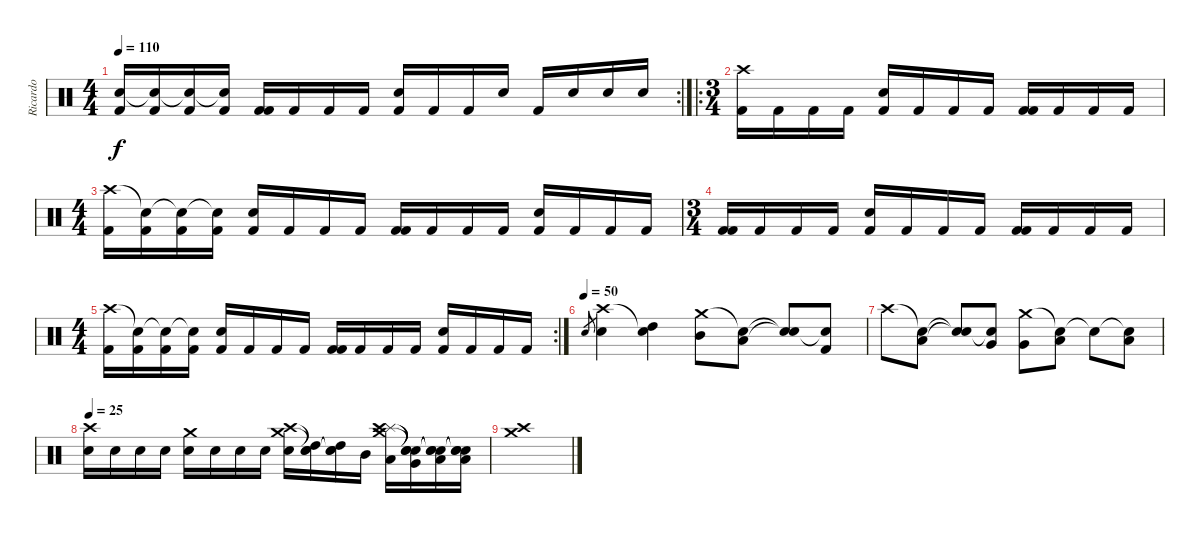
\track ("Ricardo" "Ricardo") {instrument percussion}
\staff {score}
\articulation defaults
\rc 2
\ts (4 4)
\tempo 110
\clef neutral
\ks c
("Snare (hit) 2" "Kick (hit) 2").16{dy f} ("Snare (hit)"{t} "Kick (hit) 2").16 ("Snare (hit)"{t} "Kick (hit) 2").16 ("Snare (hit)"{t} "Kick (hit) 2").16 ("Kick (hit) 2" "Kick (hit) 2").16 "Kick (hit) 2".16 "Kick (hit) 2".16 "Kick (hit) 2".16 ("Snare (hit) 2" "Kick (hit) 2").16 "Kick (hit) 2".16 "Kick (hit) 2".16 "Snare (hit) 2".16 "Kick (hit) 2".16 "Snare (hit) 2".16 "Snare (hit) 2".16 "Snare (hit) 2".16 |
\ro
\ts (3 4)
("Crash high (hit)" "Kick (hit) 2").16 "Kick (hit) 2".16 "Kick (hit) 2".16 "Kick (hit) 2".16 ("Snare (hit) 2" "Kick (hit) 2").16 "Kick (hit) 2".16 "Kick (hit) 2".16 "Kick (hit) 2".16 ("Kick (hit) 2" "Kick (hit) 2").16 "Kick (hit) 2".16 "Kick (hit) 2".16 "Kick (hit) 2".16 |
\ts (4 4)
("Crash high (hit)" "Kick (hit) 2").16 ("Snare (hit)"{t} "Kick (hit) 2").16 ("Snare (hit)"{t} "Kick (hit) 2").16 ("Snare (hit)"{t} "Kick (hit) 2").16 ("Snare (hit) 2" "Kick (hit) 2").16 "Kick (hit) 2".16 "Kick (hit) 2".16 "Kick (hit) 2".16 ("Kick (hit) 2" "Kick (hit) 2").16 "Kick (hit) 2".16 "Kick (hit) 2".16 "Kick (hit) 2".16 ("Snare (hit) 2" "Kick (hit) 2").16 "Kick (hit) 2".16 "Kick (hit) 2".16 "Kick (hit) 2".16 |
\ts (3 4)
("Kick (hit) 2" "Kick (hit) 2").16 "Kick (hit) 2".16 "Kick (hit) 2".16 "Kick (hit) 2".16 ("Snare (hit) 2" "Kick (hit) 2").16 "Kick (hit) 2".16 "Kick (hit) 2".16 "Kick (hit) 2".16 ("Kick (hit) 2" "Kick (hit) 2").16 "Kick (hit) 2".16 "Kick (hit) 2".16 "Kick (hit) 2".16 |
\rc 2
\ts (4 4)
("Crash high (hit)" "Kick (hit) 2").16 ("Snare (hit)"{t} "Kick (hit) 2").16 ("Snare (hit)"{t} "Kick (hit) 2").16 ("Snare (hit)"{t} "Kick (hit) 2").16 ("Snare (hit) 2" "Kick (hit) 2").16 "Kick (hit) 2".16 "Kick (hit) 2".16 "Kick (hit) 2".16 ("Kick (hit) 2" "Kick (hit) 2").16 "Kick (hit) 2".16 "Kick (hit) 2".16 "Kick (hit) 2".16 ("Snare (hit) 2" "Kick (hit) 2").16 "Kick (hit) 2".16 "Kick (hit) 2".16 "Kick (hit) 2".16 |
\tempo (50)
"Snare (hit) 2".8{gr} ("Crash high (hit)" "Snare (hit) 2").4 ("Snare (hit)"{t} "High Tom (hit)").4 ("Crash medium (hit)" "Mid Tom (hit)").8 ("Snare (hit)"{t} "Low Tom (hit)").8 ("Snare (hit)"{t} "Snare (hit)"{t}).8 ("Snare (hit)"{t} "Kick (hit) 2").8 |
"Crash high (hit)".8 ("Snare (hit)"{t} "Low Tom (hit)").8 ("Snare (hit)"{t} "Snare (hit)"{t}).8 ("Snare (hit)"{t} "Very Low Tom (hit)").8 ("Crash medium (hit)" "Very Low Tom (hit)").8 ("Snare (hit)"{t} "Low Floor Tom (hit)").8 "Snare (hit)"{t}.8 ("Snare (hit)"{t} "Low Floor Tom (hit)").8 |
\tempo 25
("Crash high (hit)" "Snare (hit) 2").16 "Snare (hit) 2".16 "Snare (hit) 2".16 "Snare (hit) 2".16 ("Crash medium (hit)" "Snare (hit) 2").16 "Snare (hit) 2".16 "Snare (hit) 2".16 "Snare (hit) 2".16 ("Crash high (hit)" "Snare (hit) 2" "Crash medium (hit)").16 ("Snare (hit)"{t} "High Tom (hit)" "Snare (hit)"{t}).16 ("Snare (hit)"{t} "High Tom (hit)" "Snare (hit)"{t}).16 "Mid Tom (hit)".16 ("Splash (hit)" "Low Tom (hit)" "Crash high (hit)" "Crash medium (hit)").16 ("Snare (hit)"{t} "Very Low Tom (hit)" "Snare (hit)"{t} "Snare (hit)"{t}).16 ("Snare (hit)"{t} "Low Floor Tom (hit)" "Snare (hit)"{t} "Snare (hit)"{t}).16 ("Snare (hit)"{t} "Low Floor Tom (hit)" "Snare (hit)"{t} "Snare (hit)"{t}).16 |
("Crash high (hit)" "Crash medium (hit)").1
